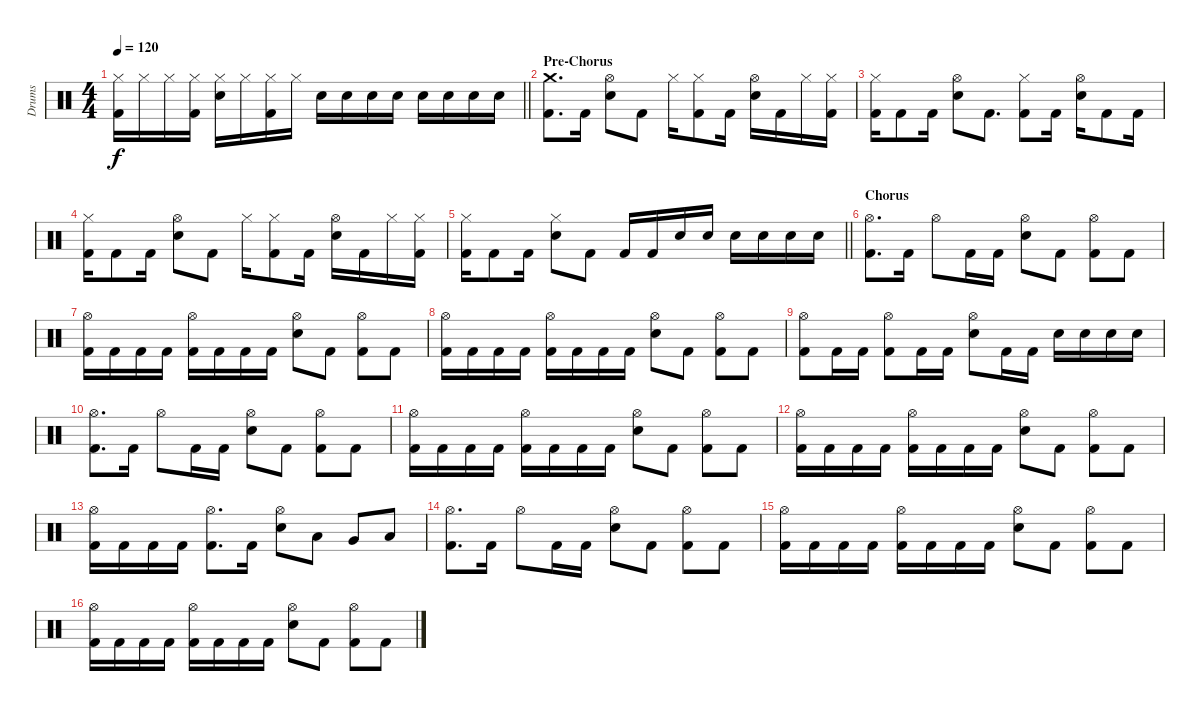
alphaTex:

\track ("Drums" "Drums") {instrument percussion}
\staff {score}
\articulation defaults
\ts (4 4)
\tempo 120
\clef neutral
\barLineRight lightlight
\ks c
("Hi-Hat (closed)" "Kick (hit) 2").16{dy f} "Hi-Hat (closed)".16 "Hi-Hat (closed)".16 ("Hi-Hat (closed)" "Kick (hit) 2").16 ("Hi-Hat (closed)" "Snare (hit) 2").16 "Hi-Hat (closed)".16 ("Hi-Hat (closed)" "Kick (hit) 2").16 "Hi-Hat (closed)".16 "Snare (hit) 2".16 "Snare (hit) 2".16 "Snare (hit) 2".16 "Snare (hit) 2".16 "Snare (hit) 2".16 "Snare (hit) 2".16 "Snare (hit) 2".16 "Snare (hit) 2".16 |
\section ("" "Pre-Chorus")
("Crash medium (hit)" "Kick (hit) 2").8{d} "Kick (hit) 2".16 ("Hi-Hat (open)" "Snare (hit) 2").8 "Kick (hit) 2".8 "Hi-Hat (closed)".16 ("Hi-Hat (closed)" "Kick (hit) 2").8 "Kick (hit) 2".16 ("Hi-Hat (open)" "Snare (hit) 2").16 "Kick (hit) 2".16 "Hi-Hat (closed)".16 ("Hi-Hat (closed)" "Kick (hit) 2").16 |
("Hi-Hat (closed)" "Kick (hit) 2").16 "Kick (hit) 2".8 "Kick (hit) 2".16 ("Hi-Hat (open)" "Snare (hit) 2").8 "Kick (hit) 2".8{d} ("Hi-Hat (closed)" "Kick (hit) 2").8 "Kick (hit) 2".16 ("Hi-Hat (open)" "Snare (hit) 2").16 "Kick (hit) 2".8 "Kick (hit) 2".16 |
("Hi-Hat (closed)" "Kick (hit) 2").16 "Kick (hit) 2".8 "Kick (hit) 2".16 ("Hi-Hat (open)" "Snare (hit) 2").8 "Kick (hit) 2".8 "Hi-Hat (closed)".16 ("Hi-Hat (closed)" "Kick (hit) 2").8 "Kick (hit) 2".16 ("Hi-Hat (open)" "Snare (hit) 2").16 "Kick (hit) 2".16 "Hi-Hat (closed)".16 ("Hi-Hat (closed)" "Kick (hit) 2").16 |
\barLineRight lightlight
("Hi-Hat (closed)" "Kick (hit) 2").16 "Kick (hit) 2".8 "Kick (hit) 2".16 ("Hi-Hat (closed)" "Snare (hit) 2").8 "Kick (hit) 2".8 "Kick (hit) 2".16 "Kick (hit) 2".16 "Snare (hit) 2".16 "Snare (hit) 2".16 "Snare (hit) 2".16 "Snare (hit) 2".16 "Snare (hit) 2".16 "Snare (hit) 2".16 |
\section ("" "Chorus")
("Hi-Hat (open)" "Kick (hit) 2").8{d} "Kick (hit) 2".16 "Hi-Hat (open)".8 "Kick (hit) 2".16 "Kick (hit) 2".16 ("Hi-Hat (open)" "Snare (hit) 2").8 "Kick (hit) 2".8 ("Hi-Hat (open)" "Kick (hit) 2").8 "Kick (hit) 2".8 |
("Hi-Hat (open)" "Kick (hit) 2").16 "Kick (hit) 2".16 "Kick (hit) 2".16 "Kick (hit) 2".16 ("Hi-Hat (open)" "Kick (hit) 2").16 "Kick (hit) 2".16 "Kick (hit) 2".16 "Kick (hit) 2".16 ("Hi-Hat (open)" "Snare (hit) 2").8 "Kick (hit) 2".8 ("Hi-Hat (open)" "Kick (hit) 2").8 "Kick (hit) 2".8 |
("Hi-Hat (open)" "Kick (hit) 2").16 "Kick (hit) 2".16 "Kick (hit) 2".16 "Kick (hit) 2".16 ("Hi-Hat (open)" "Kick (hit) 2").16 "Kick (hit) 2".16 "Kick (hit) 2".16 "Kick (hit) 2".16 ("Hi-Hat (open)" "Snare (hit) 2").8 "Kick (hit) 2".8 ("Hi-Hat (open)" "Kick (hit) 2").8 "Kick (hit) 2".8 |
("Hi-Hat (open)" "Kick (hit) 2").8 "Kick (hit) 2".16 "Kick (hit) 2".16 ("Hi-Hat (open)" "Kick (hit) 2").8 "Kick (hit) 2".16 "Kick (hit) 2".16 ("Hi-Hat (open)" "Snare (hit) 2").8 "Kick (hit) 2".16 "Kick (hit) 2".16 "Snare (hit) 2".16 "Snare (hit) 2".16 "Snare (hit) 2".16 "Snare (hit) 2".16 |
("Hi-Hat (open)" "Kick (hit) 2").8{d} "Kick (hit) 2".16 "Hi-Hat (open)".8 "Kick (hit) 2".16 "Kick (hit) 2".16 ("Hi-Hat (open)" "Snare (hit) 2").8 "Kick (hit) 2".8 ("Hi-Hat (open)" "Kick (hit) 2").8 "Kick (hit) 2".8 |
("Hi-Hat (open)" "Kick (hit) 2").16 "Kick (hit) 2".16 "Kick (hit) 2".16 "Kick (hit) 2".16 ("Hi-Hat (open)" "Kick (hit) 2").16 "Kick (hit) 2".16 "Kick (hit) 2".16 "Kick (hit) 2".16 ("Hi-Hat (open)" "Snare (hit) 2").8 "Kick (hit) 2".8 ("Hi-Hat (open)" "Kick (hit) 2").8 "Kick (hit) 2".8 |
("Hi-Hat (open)" "Kick (hit) 2").16 "Kick (hit) 2".16 "Kick (hit) 2".16 "Kick (hit) 2".16 ("Hi-Hat (open)" "Kick (hit) 2").16 "Kick (hit) 2".16 "Kick (hit) 2".16 "Kick (hit) 2".16 ("Hi-Hat (open)" "Snare (hit) 2").8 "Kick (hit) 2".8 ("Hi-Hat (open)" "Kick (hit) 2").8 "Kick (hit) 2".8 |
("Hi-Hat (open)" "Kick (hit) 2").16 "Kick (hit) 2".16 "Kick (hit) 2".16 "Kick (hit) 2".16 ("Hi-Hat (open)" "Kick (hit) 2").8{d} "Kick (hit) 2".16 ("Hi-Hat (open)" "Snare (hit) 2").8 "Low Tom (hit)".8 "Very Low Tom (hit)".8 "Low Floor Tom (hit)".8 |
("Hi-Hat (open)" "Kick (hit) 2").8{d} "Kick (hit) 2".16 "Hi-Hat (open)".8 "Kick (hit) 2".16 "Kick (hit) 2".16 ("Hi-Hat (open)" "Snare (hit) 2").8 "Kick (hit) 2".8 ("Hi-Hat (open)" "Kick (hit) 2").8 "Kick (hit) 2".8 |
("Hi-Hat (open)" "Kick (hit) 2").16 "Kick (hit) 2".16 "Kick (hit) 2".16 "Kick (hit) 2".16 ("Hi-Hat (open)" "Kick (hit) 2").16 "Kick (hit) 2".16 "Kick (hit) 2".16 "Kick (hit) 2".16 ("Hi-Hat (open)" "Snare (hit) 2").8 "Kick (hit) 2".8 ("Hi-Hat (open)" "Kick (hit) 2").8 "Kick (hit) 2".8 |
("Hi-Hat (open)" "Kick (hit) 2").16 "Kick (hit) 2".16 "Kick (hit) 2".16 "Kick (hit) 2".16 ("Hi-Hat (open)" "Kick (hit) 2").16 "Kick (hit) 2".16 "Kick (hit) 2".16 "Kick (hit) 2".16 ("Hi-Hat (open)" "Snare (hit) 2").8 "Kick (hit) 2".8 ("Hi-Hat (open)" "Kick (hit) 2").8 "Kick (hit) 2".8
